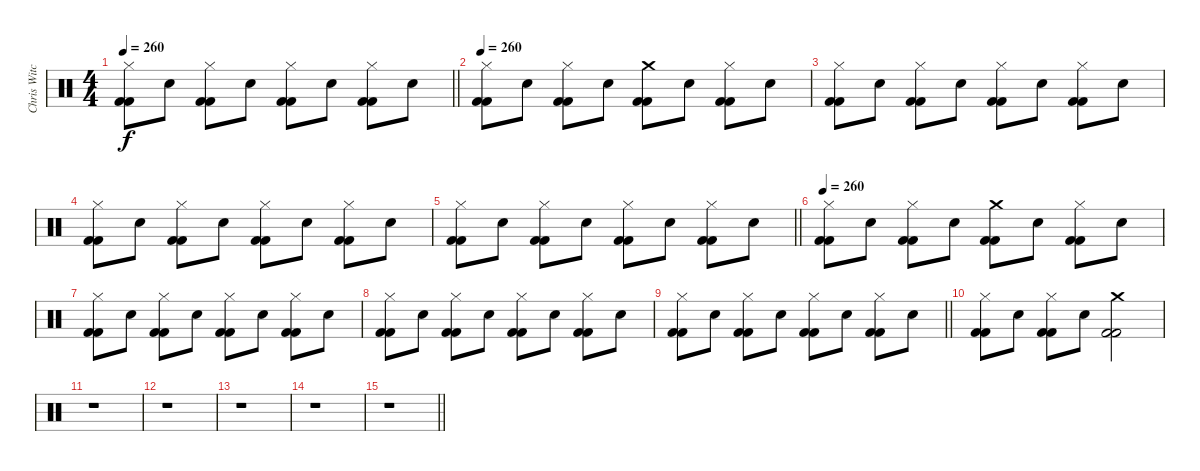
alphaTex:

\track ("Chris Witchhunter" "Chris Witc") {instrument percussion}
\staff {score}
\articulation defaults
\ts (4 4)
\tempo 260
\clef neutral
\barLineRight lightlight
\ks c
("Hi-Hat (closed)" "Kick (hit) 2" "Kick (hit) 2").8{dy f} "Electric Snare (hit)".8 ("Hi-Hat (closed)" "Kick (hit) 2" "Kick (hit) 2").8 "Electric Snare (hit)".8 ("Hi-Hat (closed)" "Kick (hit) 2" "Kick (hit) 2").8 "Electric Snare (hit)".8 ("Hi-Hat (closed)" "Kick (hit) 2" "Kick (hit) 2").8 "Electric Snare (hit)".8 |
\tempo 260
("Hi-Hat (closed)" "Kick (hit) 2" "Kick (hit) 2").8 "Electric Snare (hit)".8 ("Hi-Hat (closed)" "Kick (hit) 2" "Kick (hit) 2").8 "Electric Snare (hit)".8 ("Crash medium (hit)" "Kick (hit) 2" "Kick (hit) 2").8 "Electric Snare (hit)".8 ("Hi-Hat (closed)" "Kick (hit) 2" "Kick (hit) 2").8 "Electric Snare (hit)".8 |
("Hi-Hat (closed)" "Kick (hit) 2" "Kick (hit) 2").8 "Electric Snare (hit)".8 ("Hi-Hat (closed)" "Kick (hit) 2" "Kick (hit) 2").8 "Electric Snare (hit)".8 ("Hi-Hat (closed)" "Kick (hit) 2" "Kick (hit) 2").8 "Electric Snare (hit)".8 ("Hi-Hat (closed)" "Kick (hit) 2" "Kick (hit) 2").8 "Electric Snare (hit)".8 |
("Hi-Hat (closed)" "Kick (hit) 2" "Kick (hit) 2").8 "Electric Snare (hit)".8 ("Hi-Hat (closed)" "Kick (hit) 2" "Kick (hit) 2").8 "Electric Snare (hit)".8 ("Hi-Hat (closed)" "Kick (hit) 2" "Kick (hit) 2").8 "Electric Snare (hit)".8 ("Hi-Hat (closed)" "Kick (hit) 2" "Kick (hit) 2").8 "Electric Snare (hit)".8 |
\barLineRight lightlight
("Hi-Hat (closed)" "Kick (hit) 2" "Kick (hit) 2").8 "Electric Snare (hit)".8 ("Hi-Hat (closed)" "Kick (hit) 2" "Kick (hit) 2").8 "Electric Snare (hit)".8 ("Hi-Hat (closed)" "Kick (hit) 2" "Kick (hit) 2").8 "Electric Snare (hit)".8 ("Hi-Hat (closed)" "Kick (hit) 2" "Kick (hit) 2").8 "Electric Snare (hit)".8 |
\tempo 260
("Hi-Hat (closed)" "Kick (hit) 2" "Kick (hit) 2").8 "Electric Snare (hit)".8 ("Hi-Hat (closed)" "Kick (hit) 2" "Kick (hit) 2").8 "Electric Snare (hit)".8 ("Crash medium (hit)" "Kick (hit) 2" "Kick (hit) 2").8 "Electric Snare (hit)".8 ("Hi-Hat (closed)" "Kick (hit) 2" "Kick (hit) 2").8 "Electric Snare (hit)".8 |
("Hi-Hat (closed)" "Kick (hit) 2" "Kick (hit) 2").8 "Electric Snare (hit)".8 ("Hi-Hat (closed)" "Kick (hit) 2" "Kick (hit) 2").8 "Electric Snare (hit)".8 ("Hi-Hat (closed)" "Kick (hit) 2" "Kick (hit) 2").8 "Electric Snare (hit)".8 ("Hi-Hat (closed)" "Kick (hit) 2" "Kick (hit) 2").8 "Electric Snare (hit)".8 |
("Hi-Hat (closed)" "Kick (hit) 2" "Kick (hit) 2").8 "Electric Snare (hit)".8 ("Hi-Hat (closed)" "Kick (hit) 2" "Kick (hit) 2").8 "Electric Snare (hit)".8 ("Hi-Hat (closed)" "Kick (hit) 2" "Kick (hit) 2").8 "Electric Snare (hit)".8 ("Hi-Hat (closed)" "Kick (hit) 2" "Kick (hit) 2").8 "Electric Snare (hit)".8 |
\barLineRight lightlight
("Hi-Hat (closed)" "Kick (hit) 2" "Kick (hit) 2").8 "Electric Snare (hit)".8 ("Hi-Hat (closed)" "Kick (hit) 2" "Kick (hit) 2").8 "Electric Snare (hit)".8 ("Hi-Hat (closed)" "Kick (hit) 2" "Kick (hit) 2").8 "Electric Snare (hit)".8 ("Hi-Hat (closed)" "Kick (hit) 2" "Kick (hit) 2").8 "Electric Snare (hit)".8 |
("Hi-Hat (closed)" "Kick (hit) 2" "Kick (hit) 2").8 "Electric Snare (hit)".8 ("Hi-Hat (closed)" "Kick (hit) 2" "Kick (hit) 2").8 "Electric Snare (hit)".8 ("Crash medium (hit)" "Kick (hit) 2" "Kick (hit) 2").2 |
r.1 |
r.1 |
r.1 |
r.1 |
\barLineRight lightlight
r.1
